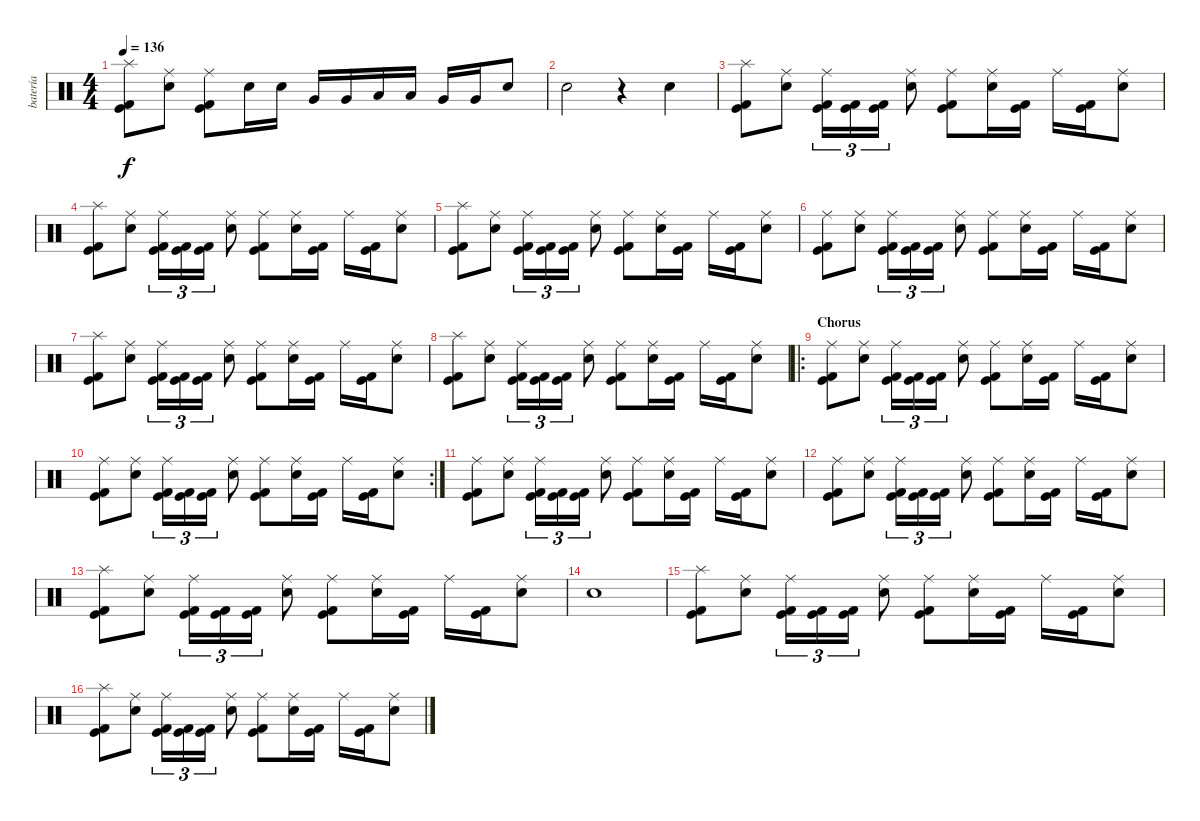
\track ("batería" "batería") {instrument percussion}
\staff {score}
\articulation defaults
\ts (4 4)
\tempo 136
\clef neutral
\ks c
("Kick (hit) 2" "Splash (hit)" "Kick (hit)").8{dy f} ("Snare (hit) 2" "Ride (middle)").8 ("Kick (hit) 2" "Ride (middle)" "Kick (hit)").8 "Snare (hit) 2".16 "Snare (hit) 2".16 "Very Low Tom (hit)".16 "Very Low Tom (hit)".16 "Low Tom (hit)".16 "Low Tom (hit)".16 "Very Low Tom (hit)".16 "Very Low Tom (hit)".16 "Snare (hit) 2".8 |
"Snare (hit) 2".2 r.4 "Snare (hit) 2".4 |
("Kick (hit) 2" "Splash (hit)" "Kick (hit)").8 ("Snare (hit) 2" "Ride (middle)").8 ("Kick (hit) 2" "Ride (middle)" "Kick (hit)").16{tu (3 2)} ("Kick (hit) 2" "Kick (hit)").16{tu (3 2)} ("Kick (hit) 2" "Kick (hit)").16{tu (3 2)} ("Snare (hit) 2" "Ride (middle)").8 ("Kick (hit) 2" "Ride (middle)" "Kick (hit)").8 ("Snare (hit) 2" "Ride (middle)").16 ("Kick (hit) 2" "Kick (hit)").16 "Ride (middle)".16 ("Kick (hit) 2" "Kick (hit)").16 ("Snare (hit) 2" "Ride (middle)").8 |
("Kick (hit) 2" "Splash (hit)" "Kick (hit)").8 ("Snare (hit) 2" "Ride (middle)").8 ("Kick (hit) 2" "Ride (middle)" "Kick (hit)").16{tu (3 2)} ("Kick (hit) 2" "Kick (hit)").16{tu (3 2)} ("Kick (hit) 2" "Kick (hit)").16{tu (3 2)} ("Snare (hit) 2" "Ride (middle)").8 ("Kick (hit) 2" "Ride (middle)" "Kick (hit)").8 ("Snare (hit) 2" "Ride (middle)").16 ("Kick (hit) 2" "Kick (hit)").16 "Ride (middle)".16 ("Kick (hit) 2" "Kick (hit)").16 ("Snare (hit) 2" "Ride (middle)").8 |
("Kick (hit) 2" "Splash (hit)" "Kick (hit)").8 ("Snare (hit) 2" "Ride (middle)").8 ("Kick (hit) 2" "Ride (middle)" "Kick (hit)").16{tu (3 2)} ("Kick (hit) 2" "Kick (hit)").16{tu (3 2)} ("Kick (hit) 2" "Kick (hit)").16{tu (3 2)} ("Snare (hit) 2" "Ride (middle)").8 ("Kick (hit) 2" "Ride (middle)" "Kick (hit)").8 ("Snare (hit) 2" "Ride (middle)").16 ("Kick (hit) 2" "Kick (hit)").16 "Ride (middle)".16 ("Kick (hit) 2" "Kick (hit)").16 ("Snare (hit) 2" "Ride (middle)").8 |
("Kick (hit) 2" "Ride (middle)" "Kick (hit)").8 ("Snare (hit) 2" "Ride (middle)").8 ("Kick (hit) 2" "Ride (middle)" "Kick (hit)").16{tu (3 2)} ("Kick (hit) 2" "Kick (hit)").16{tu (3 2)} ("Kick (hit) 2" "Kick (hit)").16{tu (3 2)} ("Snare (hit) 2" "Ride (middle)").8 ("Kick (hit) 2" "Ride (middle)" "Kick (hit)").8 ("Snare (hit) 2" "Ride (middle)").16 ("Kick (hit) 2" "Kick (hit)").16 "Ride (middle)".16 ("Kick (hit) 2" "Kick (hit)").16 ("Snare (hit) 2" "Ride (middle)").8 |
("Kick (hit) 2" "Splash (hit)" "Kick (hit)").8 ("Snare (hit) 2" "Ride (middle)").8 ("Kick (hit) 2" "Ride (middle)" "Kick (hit)").16{tu (3 2)} ("Kick (hit) 2" "Kick (hit)").16{tu (3 2)} ("Kick (hit) 2" "Kick (hit)").16{tu (3 2)} ("Snare (hit) 2" "Ride (middle)").8 ("Kick (hit) 2" "Ride (middle)" "Kick (hit)").8 ("Snare (hit) 2" "Ride (middle)").16 ("Kick (hit) 2" "Kick (hit)").16 "Ride (middle)".16 ("Kick (hit) 2" "Kick (hit)").16 ("Snare (hit) 2" "Ride (middle)").8 |
("Kick (hit) 2" "Splash (hit)" "Kick (hit)").8 ("Snare (hit) 2" "Ride (middle)").8 ("Kick (hit) 2" "Ride (middle)" "Kick (hit)").16{tu (3 2)} ("Kick (hit) 2" "Kick (hit)").16{tu (3 2)} ("Kick (hit) 2" "Kick (hit)").16{tu (3 2)} ("Snare (hit) 2" "Ride (middle)").8 ("Kick (hit) 2" "Ride (middle)" "Kick (hit)").8 ("Snare (hit) 2" "Ride (middle)").16 ("Kick (hit) 2" "Kick (hit)").16 "Ride (middle)".16 ("Kick (hit) 2" "Kick (hit)").16 ("Snare (hit) 2" "Ride (middle)").8 |
\ro
\section ("" "Chorus")
("Kick (hit) 2" "Ride (middle)" "Kick (hit)").8 ("Snare (hit) 2" "Ride (middle)").8 ("Kick (hit) 2" "Ride (middle)" "Kick (hit)").16{tu (3 2)} ("Kick (hit) 2" "Kick (hit)").16{tu (3 2)} ("Kick (hit) 2" "Kick (hit)").16{tu (3 2)} ("Snare (hit) 2" "Ride (middle)").8 ("Kick (hit) 2" "Ride (middle)" "Kick (hit)").8 ("Snare (hit) 2" "Ride (middle)").16 ("Kick (hit) 2" "Kick (hit)").16 "Ride (middle)".16 ("Kick (hit) 2" "Kick (hit)").16 ("Snare (hit) 2" "Ride (middle)").8 |
\rc 2
("Kick (hit) 2" "Ride (middle)" "Kick (hit)").8 ("Snare (hit) 2" "Ride (middle)").8 ("Kick (hit) 2" "Ride (middle)" "Kick (hit)").16{tu (3 2)} ("Kick (hit) 2" "Kick (hit)").16{tu (3 2)} ("Kick (hit) 2" "Kick (hit)").16{tu (3 2)} ("Snare (hit) 2" "Ride (middle)").8 ("Kick (hit) 2" "Ride (middle)" "Kick (hit)").8 ("Snare (hit) 2" "Ride (middle)").16 ("Kick (hit) 2" "Kick (hit)").16 "Ride (middle)".16 ("Kick (hit) 2" "Kick (hit)").16 ("Snare (hit) 2" "Ride (middle)").8 |
("Kick (hit) 2" "Ride (middle)" "Kick (hit)").8 ("Snare (hit) 2" "Ride (middle)").8 ("Kick (hit) 2" "Ride (middle)" "Kick (hit)").16{tu (3 2)} ("Kick (hit) 2" "Kick (hit)").16{tu (3 2)} ("Kick (hit) 2" "Kick (hit)").16{tu (3 2)} ("Snare (hit) 2" "Ride (middle)").8 ("Kick (hit) 2" "Ride (middle)" "Kick (hit)").8 ("Snare (hit) 2" "Ride (middle)").16 ("Kick (hit) 2" "Kick (hit)").16 "Ride (middle)".16 ("Kick (hit) 2" "Kick (hit)").16 ("Snare (hit) 2" "Ride (middle)").8 |
("Kick (hit) 2" "Ride (middle)" "Kick (hit)").8 ("Snare (hit) 2" "Ride (middle)").8 ("Kick (hit) 2" "Ride (middle)" "Kick (hit)").16{tu (3 2)} ("Kick (hit) 2" "Kick (hit)").16{tu (3 2)} ("Kick (hit) 2" "Kick (hit)").16{tu (3 2)} ("Snare (hit) 2" "Ride (middle)").8 ("Kick (hit) 2" "Ride (middle)" "Kick (hit)").8 ("Snare (hit) 2" "Ride (middle)").16 ("Kick (hit) 2" "Kick (hit)").16 "Ride (middle)".16 ("Kick (hit) 2" "Kick (hit)").16 ("Snare (hit) 2" "Ride (middle)").8 |
("Kick (hit) 2" "Splash (hit)" "Kick (hit)").8 ("Snare (hit) 2" "Ride (middle)").8 ("Kick (hit) 2" "Ride (middle)" "Kick (hit)").16{tu (3 2)} ("Kick (hit) 2" "Kick (hit)").16{tu (3 2)} ("Kick (hit) 2" "Kick (hit)").16{tu (3 2)} ("Snare (hit) 2" "Ride (middle)").8 ("Kick (hit) 2" "Ride (middle)" "Kick (hit)").8 ("Snare (hit) 2" "Ride (middle)").16 ("Kick (hit) 2" "Kick (hit)").16 "Ride (middle)".16 ("Kick (hit) 2" "Kick (hit)").16 ("Snare (hit) 2" "Ride (middle)").8 |
"Snare (hit) 2".1 |
("Kick (hit) 2" "Splash (hit)" "Kick (hit)").8 ("Snare (hit) 2" "Ride (middle)").8 ("Kick (hit) 2" "Ride (middle)" "Kick (hit)").16{tu (3 2)} ("Kick (hit) 2" "Kick (hit)").16{tu (3 2)} ("Kick (hit) 2" "Kick (hit)").16{tu (3 2)} ("Snare (hit) 2" "Ride (middle)").8 ("Kick (hit) 2" "Ride (middle)" "Kick (hit)").8 ("Snare (hit) 2" "Ride (middle)").16 ("Kick (hit) 2" "Kick (hit)").16 "Ride (middle)".16 ("Kick (hit) 2" "Kick (hit)").16 ("Snare (hit) 2" "Ride (middle)").8 |
("Kick (hit) 2" "Splash (hit)" "Kick (hit)").8 ("Snare (hit) 2" "Ride (middle)").8 ("Kick (hit) 2" "Ride (middle)" "Kick (hit)").16{tu (3 2)} ("Kick (hit) 2" "Kick (hit)").16{tu (3 2)} ("Kick (hit) 2" "Kick (hit)").16{tu (3 2)} ("Snare (hit) 2" "Ride (middle)").8 ("Kick (hit) 2" "Ride (middle)" "Kick (hit)").8 ("Snare (hit) 2" "Ride (middle)").16 ("Kick (hit) 2" "Kick (hit)").16 "Ride (middle)".16 ("Kick (hit) 2" "Kick (hit)").16 ("Snare (hit) 2" "Ride (middle)").8
